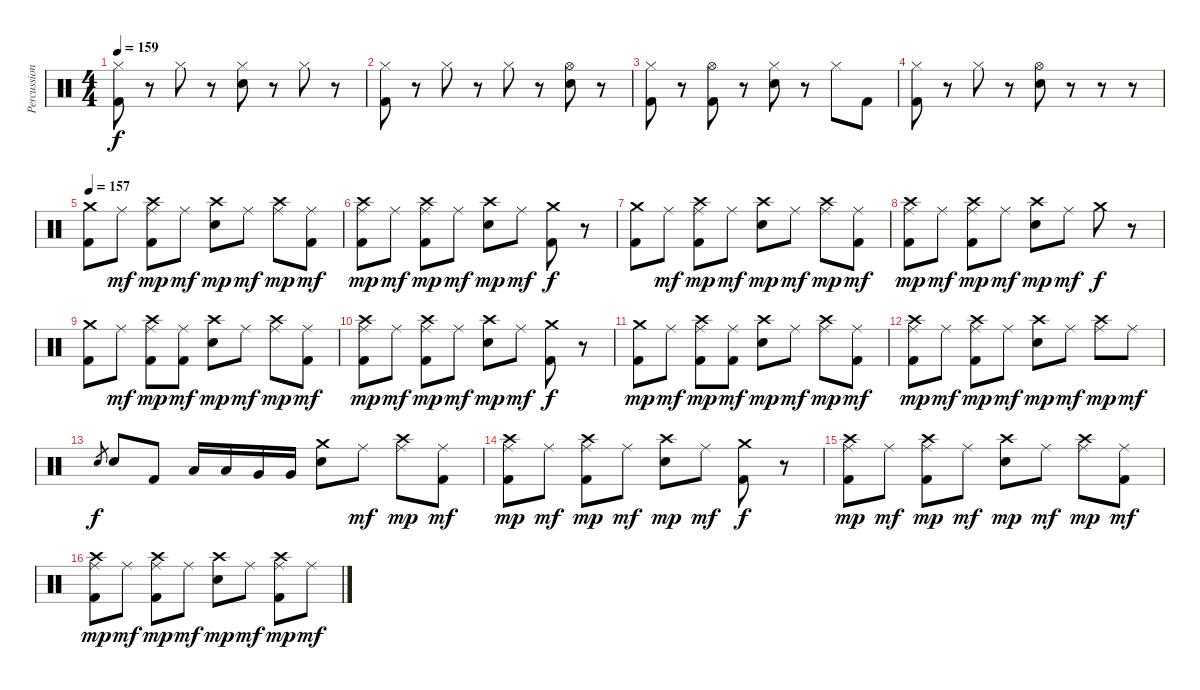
\track ("Percussion" "Percussion") {instrument percussion}
\staff {score}
\articulation defaults
\ts (4 4)
\tempo 159
\clef neutral
\ks c
("Hi-Hat (closed)" "Kick (hit) 2").8{dy f} r.8 "Hi-Hat (closed)".8 r.8 ("Hi-Hat (closed)" "Electric Snare (hit)").8 r.8 "Hi-Hat (closed)".8 r.8 |
("Hi-Hat (closed)" "Kick (hit) 2").8 r.8 "Hi-Hat (closed)".8 r.8 "Hi-Hat (closed)".8 r.8 ("Hi-Hat (open)" "Electric Snare (hit)").8 r.8 |
("Hi-Hat (closed)" "Kick (hit) 2").8 r.8 ("Hi-Hat (open)" "Kick (hit) 2").8 r.8 ("Hi-Hat (closed)" "Electric Snare (hit)").8 r.8 "Hi-Hat (closed)".8 "Kick (hit) 2".8 |
("Hi-Hat (closed)" "Kick (hit) 2").8 r.8 "Hi-Hat (closed)".8 r.8 ("Hi-Hat (open)" "Electric Snare (hit)").8 r.8 r.8 r.8 |
\tempo 157
("Crash medium (hit)" "Kick (hit) 2").8 "Ride (middle)".8{dy mf} ("Ride (middle)" "Kick (hit) 2" "Crash high (hit)").8{dy mp} "Ride (middle)".8{dy mf} ("Electric Snare (hit)" "Crash high (hit)").8{dy mp} "Ride (middle)".8{dy mf} ("Ride (middle)" "Crash high (hit)").8{dy mp} ("Ride (middle)" "Kick (hit) 2").8{dy mf} |
("Ride (middle)" "Kick (hit) 2" "Crash high (hit)").8{dy mp} "Ride (middle)".8{dy mf} ("Ride (middle)" "Kick (hit) 2" "Crash high (hit)").8{dy mp} "Ride (middle)".8{dy mf} ("Electric Snare (hit)" "Crash high (hit)").8{dy mp} "Ride (middle)".8{dy mf} ("Crash medium (hit)" "Kick (hit) 2").8{dy f} r.8 |
("Crash medium (hit)" "Kick (hit) 2").8 "Ride (middle)".8{dy mf} ("Ride (middle)" "Kick (hit) 2" "Crash high (hit)").8{dy mp} "Ride (middle)".8{dy mf} ("Electric Snare (hit)" "Crash high (hit)").8{dy mp} "Ride (middle)".8{dy mf} ("Ride (middle)" "Crash high (hit)").8{dy mp} ("Ride (middle)" "Kick (hit) 2").8{dy mf} |
("Ride (middle)" "Kick (hit) 2" "Crash high (hit)").8{dy mp} "Ride (middle)".8{dy mf} ("Ride (middle)" "Kick (hit) 2" "Crash high (hit)").8{dy mp} "Ride (middle)".8{dy mf} ("Electric Snare (hit)" "Crash high (hit)").8{dy mp} "Ride (middle)".8{dy mf} "Crash medium (hit)".8{dy f} r.8 |
("Crash medium (hit)" "Kick (hit) 2").8 "Ride (middle)".8{dy mf} ("Ride (middle)" "Kick (hit) 2" "Crash high (hit)").8{dy mp} ("Ride (middle)" "Kick (hit) 2").8{dy mf} ("Electric Snare (hit)" "Crash high (hit)").8{dy mp} "Ride (middle)".8{dy mf} ("Ride (middle)" "Crash high (hit)").8{dy mp} ("Ride (middle)" "Kick (hit) 2").8{dy mf} |
("Ride (middle)" "Kick (hit) 2" "Crash high (hit)").8{dy mp} "Ride (middle)".8{dy mf} ("Ride (middle)" "Kick (hit) 2" "Crash high (hit)").8{dy mp} "Ride (middle)".8{dy mf} ("Electric Snare (hit)" "Crash high (hit)").8{dy mp} "Ride (middle)".8{dy mf} ("Crash medium (hit)" "Kick (hit) 2").8{dy f} r.8 |
("Crash medium (hit)" "Kick (hit) 2").8{dy mp} "Ride (middle)".8{dy mf} ("Ride (middle)" "Kick (hit) 2" "Crash high (hit)").8{dy mp} ("Ride (middle)" "Kick (hit) 2").8{dy mf} ("Electric Snare (hit)" "Crash high (hit)").8{dy mp} "Ride (middle)".8{dy mf} ("Ride (middle)" "Crash high (hit)").8{dy mp} ("Ride (middle)" "Kick (hit) 2").8{dy mf} |
("Ride (middle)" "Kick (hit) 2" "Crash high (hit)").8{dy mp} "Ride (middle)".8{dy mf} ("Ride (middle)" "Kick (hit) 2" "Crash high (hit)").8{dy mp} "Ride (middle)".8{dy mf} ("Electric Snare (hit)" "Crash high (hit)").8{dy mp} "Ride (middle)".8{dy mf} ("Ride (middle)" "Crash high (hit)").8{dy mp} "Ride (middle)".8{dy mf} |
"Electric Snare (hit)".8{gr dy f} "Electric Snare (hit)".8 "Kick (hit) 2".8 "Low Tom (hit)".16 "Low Tom (hit)".16 "Very Low Tom (hit)".16 "Very Low Tom (hit)".16 ("Electric Snare (hit)" "Crash medium (hit)").8 "Ride (middle)".8{dy mf} ("Ride (middle)" "Crash high (hit)").8{dy mp} ("Ride (middle)" "Kick (hit) 2").8{dy mf} |
("Ride (middle)" "Kick (hit) 2" "Crash high (hit)").8{dy mp} "Ride (middle)".8{dy mf} ("Ride (middle)" "Kick (hit) 2" "Crash high (hit)").8{dy mp} "Ride (middle)".8{dy mf} ("Electric Snare (hit)" "Crash high (hit)").8{dy mp} "Ride (middle)".8{dy mf} ("Crash medium (hit)" "Kick (hit) 2").8{dy f} r.8 |
("Ride (middle)" "Kick (hit) 2" "Crash high (hit)").8{dy mp} "Ride (middle)".8{dy mf} ("Ride (middle)" "Kick (hit) 2" "Crash high (hit)").8{dy mp} "Ride (middle)".8{dy mf} ("Electric Snare (hit)" "Crash high (hit)").8{dy mp} "Ride (middle)".8{dy mf} ("Ride (middle)" "Crash high (hit)").8{dy mp} ("Ride (middle)" "Kick (hit) 2").8{dy mf} |
("Ride (middle)" "Kick (hit) 2" "Crash high (hit)").8{dy mp} "Ride (middle)".8{dy mf} ("Ride (middle)" "Kick (hit) 2" "Crash high (hit)").8{dy mp} "Ride (middle)".8{dy mf} ("Electric Snare (hit)" "Crash high (hit)").8{dy mp} "Ride (middle)".8{dy mf} ("Ride (middle)" "Kick (hit) 2" "Crash high (hit)").8{dy mp} "Ride (middle)".8{dy mf}
